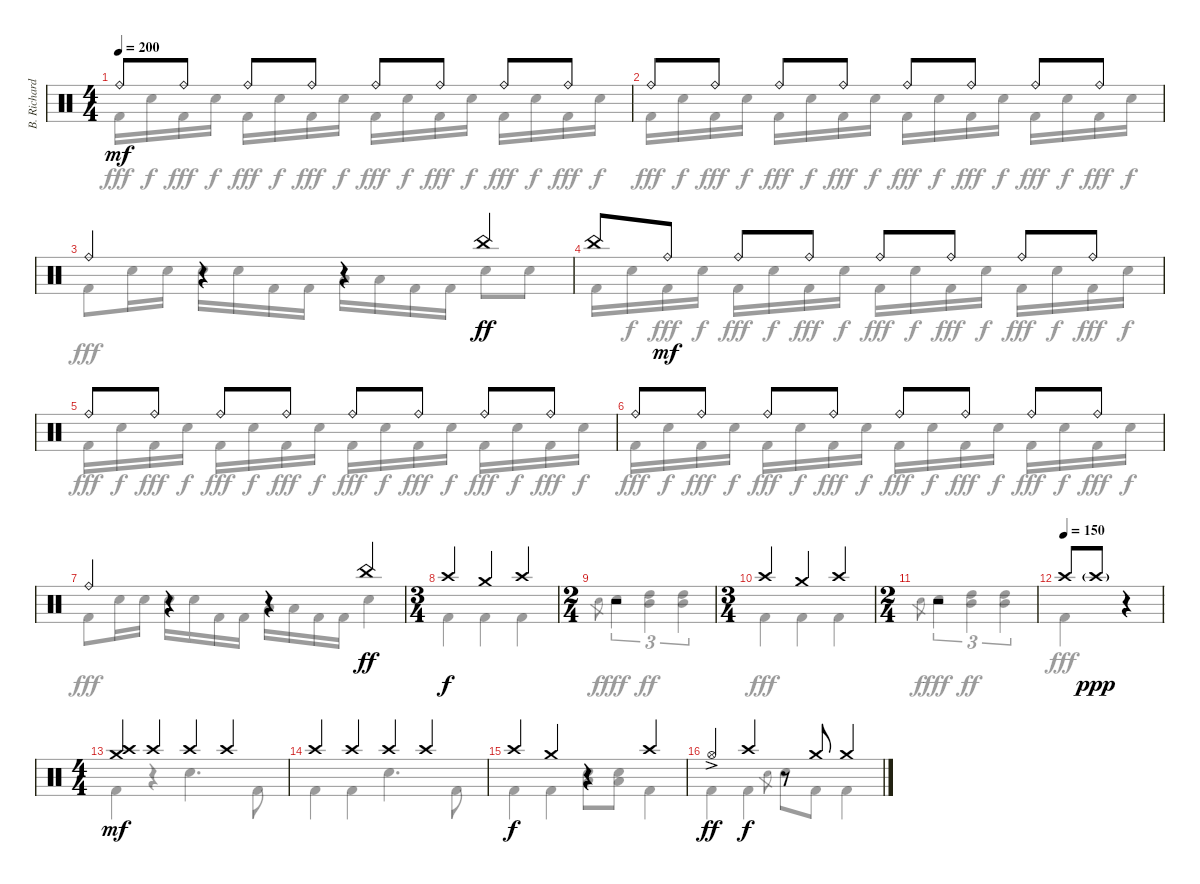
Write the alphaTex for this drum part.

\track ("B. Richardson Drums" "B. Richard") {instrument percussion}
\staff {score}
\articulation defaults
\voice
\ts (4 4)
\tempo 200
\clef neutral
\ks c "Ride (bell)".8{dy mf} "Ride (bell)".8 "Ride (bell)".8 "Ride (bell)".8 "Ride (bell)".8 "Ride (bell)".8 "Ride (bell)".8 "Ride (bell)".8
|
"Ride (bell)".8 "Ride (bell)".8 "Ride (bell)".8 "Ride (bell)".8 "Ride (bell)".8 "Ride (bell)".8 "Ride (bell)".8 "Ride (bell)".8 |
"Ride (bell)".4 r.4 r.4 "China (hit)".4{dy ff} |
"China (hit)".8 "Ride (bell)".8{dy mf} "Ride (bell)".8 "Ride (bell)".8 "Ride (bell)".8 "Ride (bell)".8 "Ride (bell)".8 "Ride (bell)".8 |
"Ride (bell)".8 "Ride (bell)".8 "Ride (bell)".8 "Ride (bell)".8 "Ride (bell)".8 "Ride (bell)".8 "Ride (bell)".8 "Ride (bell)".8 |
"Ride (bell)".8 "Ride (bell)".8 "Ride (bell)".8 "Ride (bell)".8 "Ride (bell)".8 "Ride (bell)".8 "Ride (bell)".8 "Ride (bell)".8 |
"Ride (bell)".4 r.4 r.4 "China (hit)".4{dy ff} |
\ts (3 4)
"Crash high (hit)".4{dy f} "Crash medium (hit)".4 "Crash high (hit)".4 |
\ts (2 4)
r.2 |
\ts (3 4)
"Crash high (hit)".4 "Crash medium (hit)".4 "Crash high (hit)".4 |
\ts (2 4)
r.2 |
\tempo (150)
"Crash high (hit)".8 "Crash high (hit)"{g}.8{dy ppp} r.4 |
\ts (4 4)
("Crash high (hit)" "Crash medium (hit)").4{dy mf} "Crash high (hit)".4 "Crash high (hit)".4 "Crash high (hit)".4 |
"Crash high (hit)".4 "Crash high (hit)".4 "Crash high (hit)".4 "Crash high (hit)".4 |
"Crash high (hit)".4{dy f} "Crash medium (hit)".4 r.4 "Crash high (hit)".4 |
"Hi-Hat (open)"{ac}.4{dy ff} "Crash high (hit)".4{dy f} r.8 "Crash medium (hit)".8 "Crash medium (hit)".4
\voice
\clef neutral
\ottava regular
\simile none
\ks c "Kick (hit) 2".16{dy fff} "Electric Snare (hit)".16{dy f} "Kick (hit) 2".16{dy fff} "Electric Snare (hit)".16{dy f} "Kick (hit) 2".16{dy fff} "Electric Snare (hit)".16{dy f} "Kick (hit) 2".16{dy fff} "Electric Snare (hit)".16{dy f} "Kick (hit) 2".16{dy fff} "Electric Snare (hit)".16{dy f} "Kick (hit) 2".16{dy fff} "Electric Snare (hit)".16{dy f} "Kick (hit) 2".16{dy fff} "Electric Snare (hit)".16{dy f} "Kick (hit) 2".16{dy fff} "Electric Snare (hit)".16{dy f}
|
"Kick (hit) 2".16{dy fff} "Electric Snare (hit)".16{dy f} "Kick (hit) 2".16{dy fff} "Electric Snare (hit)".16{dy f} "Kick (hit) 2".16{dy fff} "Electric Snare (hit)".16{dy f} "Kick (hit) 2".16{dy fff} "Electric Snare (hit)".16{dy f} "Kick (hit) 2".16{dy fff} "Electric Snare (hit)".16{dy f} "Kick (hit) 2".16{dy fff} "Electric Snare (hit)".16{dy f} "Kick (hit) 2".16{dy fff} "Electric Snare (hit)".16{dy f} "Kick (hit) 2".16{dy fff} "Electric Snare (hit)".16{dy f} |
"Kick (hit) 2".8{dy fff} "Electric Snare (hit)".16 "Electric Snare (hit)".16 "Electric Snare (hit)".16 "Electric Snare (hit)".16 "Kick (hit) 2".16 "Kick (hit) 2".16 "Low Tom (hit)".16 "Low Tom (hit)".16 "Kick (hit) 2".16 "Kick (hit) 2".16 "Electric Snare (hit)".8 "Electric Snare (hit)".8 |
"Kick (hit) 2".16 "Electric Snare (hit)".16{dy f} "Kick (hit) 2".16{dy fff} "Electric Snare (hit)".16{dy f} "Kick (hit) 2".16{dy fff} "Electric Snare (hit)".16{dy f} "Kick (hit) 2".16{dy fff} "Electric Snare (hit)".16{dy f} "Kick (hit) 2".16{dy fff} "Electric Snare (hit)".16{dy f} "Kick (hit) 2".16{dy fff} "Electric Snare (hit)".16{dy f} "Kick (hit) 2".16{dy fff} "Electric Snare (hit)".16{dy f} "Kick (hit) 2".16{dy fff} "Electric Snare (hit)".16{dy f} |
"Kick (hit) 2".16{dy fff} "Electric Snare (hit)".16{dy f} "Kick (hit) 2".16{dy fff} "Electric Snare (hit)".16{dy f} "Kick (hit) 2".16{dy fff} "Electric Snare (hit)".16{dy f} "Kick (hit) 2".16{dy fff} "Electric Snare (hit)".16{dy f} "Kick (hit) 2".16{dy fff} "Electric Snare (hit)".16{dy f} "Kick (hit) 2".16{dy fff} "Electric Snare (hit)".16{dy f} "Kick (hit) 2".16{dy fff} "Electric Snare (hit)".16{dy f} "Kick (hit) 2".16{dy fff} "Electric Snare (hit)".16{dy f} |
"Kick (hit) 2".16{dy fff} "Electric Snare (hit)".16{dy f} "Kick (hit) 2".16{dy fff} "Electric Snare (hit)".16{dy f} "Kick (hit) 2".16{dy fff} "Electric Snare (hit)".16{dy f} "Kick (hit) 2".16{dy fff} "Electric Snare (hit)".16{dy f} "Kick (hit) 2".16{dy fff} "Electric Snare (hit)".16{dy f} "Kick (hit) 2".16{dy fff} "Electric Snare (hit)".16{dy f} "Kick (hit) 2".16{dy fff} "Electric Snare (hit)".16{dy f} "Kick (hit) 2".16{dy fff} "Electric Snare (hit)".16{dy f} |
"Kick (hit) 2".8{dy fff} "Electric Snare (hit)".16 "Electric Snare (hit)".16 "Electric Snare (hit)".16 "Electric Snare (hit)".16 "Kick (hit) 2".16 "Kick (hit) 2".16 "Low Tom (hit)".16 "Low Tom (hit)".16 "Kick (hit) 2".16 "Kick (hit) 2".16 "Electric Snare (hit)".4 |
"Kick (hit) 2".4 "Kick (hit) 2".4 "Kick (hit) 2".4 |
"Electric Snare (hit)".8{gr dy f} "Electric Snare (hit)".4{tu (3 2) dy fff} ("High Tom (hit)" "Mid Tom (hit)").4{tu (3 2) dy ff} ("High Tom (hit)" "Mid Tom (hit)").4{tu (3 2)} |
"Kick (hit) 2".4{dy fff} "Kick (hit) 2".4 "Kick (hit) 2".4 |
"Electric Snare (hit)".8{gr dy f} "Electric Snare (hit)".4{tu (3 2) dy fff} ("High Tom (hit)" "Mid Tom (hit)").4{tu (3 2) dy ff} ("High Tom (hit)" "Mid Tom (hit)").4{tu (3 2)} |
"Kick (hit) 2".4{dy fff} r.4 |
"Kick (hit) 2".4 r.4 "Electric Snare (hit)".4{d} "Kick (hit) 2".8 |
"Kick (hit) 2".4 "Kick (hit) 2".4 "Electric Snare (hit)".4{d} "Kick (hit) 2".8 |
"Kick (hit) 2".4 "Kick (hit) 2".4 ("Electric Snare (hit)" "Low Tom (hit)").8 ("Electric Snare (hit)" "Low Tom (hit)").8 "Kick (hit) 2".4 |
"Kick (hit) 2".4 "Kick (hit) 2".4 "Electric Snare (hit)".8{gr} "Electric Snare (hit)".8 "Kick (hit) 2".8 "Kick (hit) 2".4
